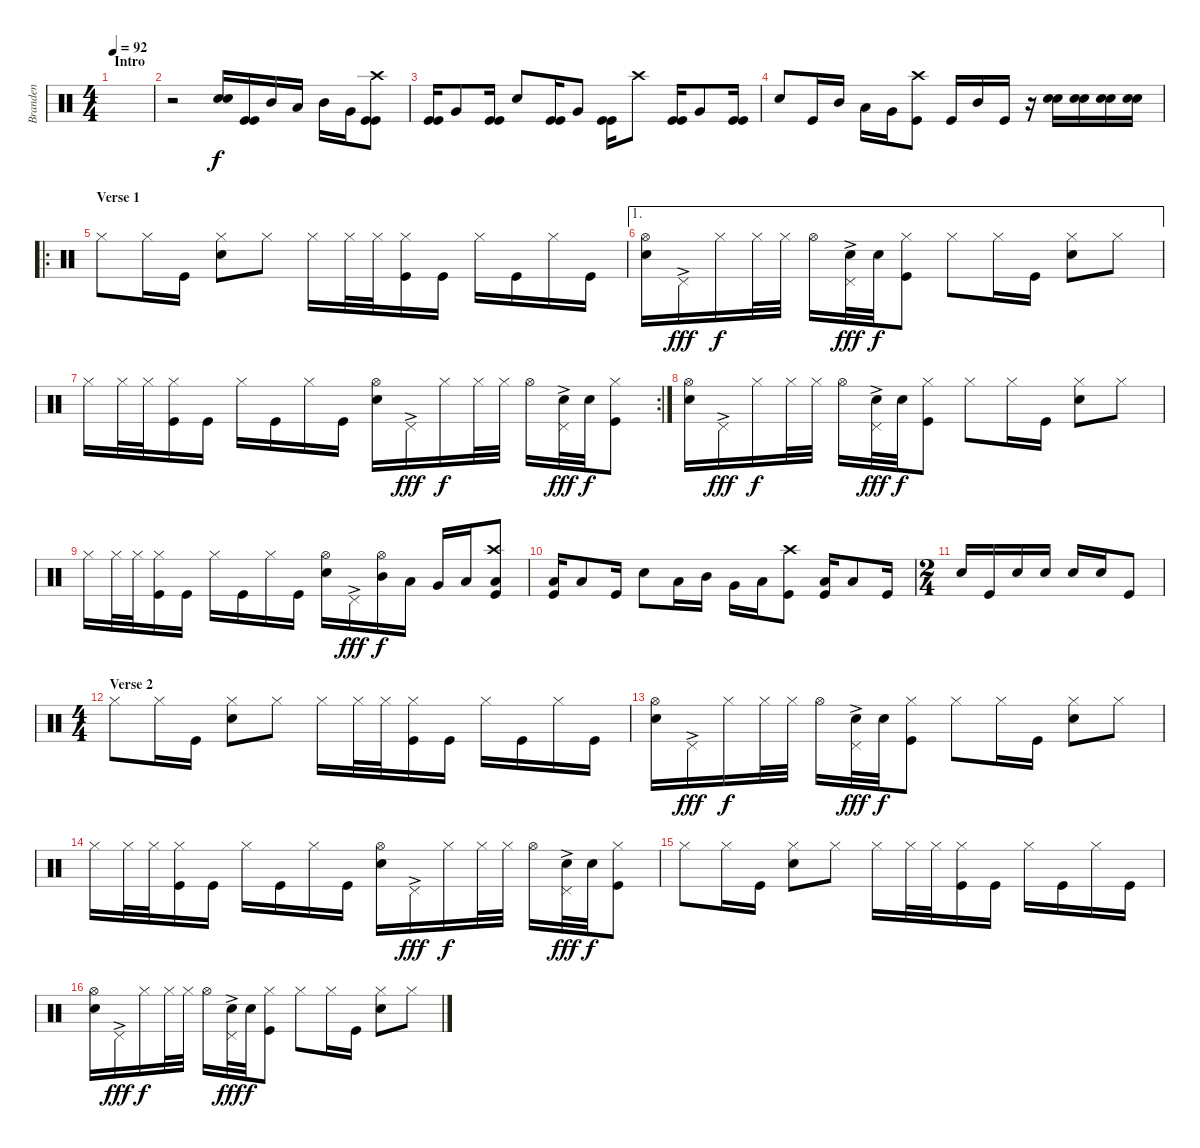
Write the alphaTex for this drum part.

\track ("Branden" "Branden") {instrument percussion}
\staff {score}
\articulation defaults
\ts (4 4)
\section ("" "Intro")
\tempo 92
\clef neutral
\ks c
|
r.2 ("Snare (hit) 2" "Snare (hit) 2").16 ("Kick (hit)" "Kick (hit)").16 "Mid Tom (hit)".16 "Low Tom (hit)".16 "Mid Tom (hit)".16 "Very Low Tom (hit)".16 ("Crash high (hit)" "Kick (hit)" "Kick (hit)").8 |
("Kick (hit)" "Kick (hit)").16 "Very Low Tom (hit)".8 ("Kick (hit)" "Kick (hit)").16 "Snare (hit) 2".8 ("Kick (hit)" "Kick (hit)").16 "Very Low Tom (hit)".8 ("Kick (hit)" "Kick (hit)").16 "Crash high (hit)".8 ("Kick (hit)" "Kick (hit)").16 "Very Low Tom (hit)".8 ("Kick (hit)" "Kick (hit)").16 |
"Snare (hit) 2".8 "Kick (hit)".16 "Mid Tom (hit)".16 "Low Tom (hit)".16 "Very Low Tom (hit)".16 ("Crash high (hit)" "Kick (hit)").8 "Kick (hit)".16 "Mid Tom (hit)".16 "Kick (hit)".16 r.16 ("Snare (hit) 2" "Snare (hit) 2").16 ("Snare (hit) 2" "Snare (hit) 2").16 ("Snare (hit) 2" "Snare (hit) 2").16 ("Snare (hit) 2" "Snare (hit) 2").16 |
\ro
\section ("" "Verse 1")
"Hi-Hat (closed)".8 "Hi-Hat (closed)".16 "Kick (hit)".16 ("Hi-Hat (closed)" "Snare (hit) 2").8 "Hi-Hat (closed)".8 "Hi-Hat (closed)".16 "Hi-Hat (closed)".32 "Hi-Hat (closed)".32 ("Hi-Hat (closed)" "Kick (hit)").16 "Kick (hit)".16 "Hi-Hat (closed)".16 "Kick (hit)".16 "Hi-Hat (closed)".16 "Kick (hit)".16 |
\ae 1
("Hi-Hat (open)" "Snare (hit) 2").16 "Pedal Hi-Hat (hit)"{ac}.16{dy fff} "Hi-Hat (closed)".16{dy f} "Hi-Hat (closed)".32 "Hi-Hat (closed)".32 "Hi-Hat (open)".16 ("Snare (hit) 2" "Pedal Hi-Hat (hit)"{ac}).32{dy fff} "Snare (hit) 2".32{dy f} ("Hi-Hat (closed)" "Kick (hit)").8 "Hi-Hat (closed)".8 "Hi-Hat (closed)".16 "Kick (hit)".16 ("Hi-Hat (closed)" "Snare (hit) 2").8 "Hi-Hat (closed)".8 |
\rc 2 "Hi-Hat (closed)".16 "Hi-Hat (closed)".32 "Hi-Hat (closed)".32
("Hi-Hat (closed)" "Kick (hit)").16 "Kick (hit)".16 "Hi-Hat (closed)".16 "Kick (hit)".16 "Hi-Hat (closed)".16 "Kick (hit)".16 ("Hi-Hat (open)" "Snare (hit) 2").16 "Pedal Hi-Hat (hit)"{ac}.16{dy fff} "Hi-Hat (closed)".16{dy f} "Hi-Hat (closed)".32 "Hi-Hat (closed)".32 "Hi-Hat (open)".16 ("Snare (hit) 2" "Pedal Hi-Hat (hit)"{ac}).32{dy fff} "Snare (hit) 2".32{dy f} ("Hi-Hat (closed)" "Kick (hit)").8 |
("Hi-Hat (open)" "Snare (hit) 2").16 "Pedal Hi-Hat (hit)"{ac}.16{dy fff} "Hi-Hat (closed)".16{dy f} "Hi-Hat (closed)".32 "Hi-Hat (closed)".32 "Hi-Hat (open)".16 ("Snare (hit) 2" "Pedal Hi-Hat (hit)"{ac}).32{dy fff} "Snare (hit) 2".32{dy f} ("Hi-Hat (closed)" "Kick (hit)").8 "Hi-Hat (closed)".8 "Hi-Hat (closed)".16 "Kick (hit)".16 ("Hi-Hat (closed)" "Snare (hit) 2").8 "Hi-Hat (closed)".8 |
"Hi-Hat (closed)".16 "Hi-Hat (closed)".32 "Hi-Hat (closed)".32 ("Hi-Hat (closed)" "Kick (hit)").16 "Kick (hit)".16 "Hi-Hat (closed)".16 "Kick (hit)".16 "Hi-Hat (closed)".16 "Kick (hit)".16 ("Hi-Hat (open)" "Snare (hit) 2").16 "Pedal Hi-Hat (hit)"{ac}.16{dy fff} ("Hi-Hat (open)" "Mid Tom (hit)").16{dy f} "Low Tom (hit)".16 "Very Low Tom (hit)".16 "Low Floor Tom (hit)".16 ("Crash high (hit)" "Low Floor Tom (hit)" "Kick (hit)").8 |
("Low Floor Tom (hit)" "Kick (hit)").16 "Low Tom (hit)".8 "Kick (hit)".16 "Snare (hit) 2".8 "Low Tom (hit)".16 "Mid Tom (hit)".16 "Very Low Tom (hit)".16 "Low Floor Tom (hit)".16 ("Crash high (hit)" "Kick (hit)").8 ("Low Floor Tom (hit)" "Kick (hit)").16 "Low Tom (hit)".8 "Kick (hit)".16 |
\ts (2 4)
"Snare (hit) 2".16 "Kick (hit)".16 "Snare (hit) 2".16 "Snare (hit) 2".16 "Snare (hit) 2".16 "Snare (hit) 2".16 "Kick (hit)".8 |
\ts (4 4)
\section ("" "Verse 2")
"Hi-Hat (closed)".8 "Hi-Hat (closed)".16 "Kick (hit)".16 ("Hi-Hat (closed)" "Snare (hit) 2").8 "Hi-Hat (closed)".8 "Hi-Hat (closed)".16 "Hi-Hat (closed)".32 "Hi-Hat (closed)".32 ("Hi-Hat (closed)" "Kick (hit)").16 "Kick (hit)".16 "Hi-Hat (closed)".16 "Kick (hit)".16 "Hi-Hat (closed)".16 "Kick (hit)".16 |
("Hi-Hat (open)" "Snare (hit) 2").16 "Pedal Hi-Hat (hit)"{ac}.16{dy fff} "Hi-Hat (closed)".16{dy f} "Hi-Hat (closed)".32 "Hi-Hat (closed)".32 "Hi-Hat (open)".16 ("Snare (hit) 2" "Pedal Hi-Hat (hit)"{ac}).32{dy fff} "Snare (hit) 2".32{dy f} ("Hi-Hat (closed)" "Kick (hit)").8 "Hi-Hat (closed)".8 "Hi-Hat (closed)".16 "Kick (hit)".16 ("Hi-Hat (closed)" "Snare (hit) 2").8 "Hi-Hat (closed)".8 |
"Hi-Hat (closed)".16 "Hi-Hat (closed)".32 "Hi-Hat (closed)".32 ("Hi-Hat (closed)" "Kick (hit)").16 "Kick (hit)".16 "Hi-Hat (closed)".16 "Kick (hit)".16 "Hi-Hat (closed)".16 "Kick (hit)".16 ("Hi-Hat (open)" "Snare (hit) 2").16 "Pedal Hi-Hat (hit)"{ac}.16{dy fff} "Hi-Hat (closed)".16{dy f} "Hi-Hat (closed)".32 "Hi-Hat (closed)".32 "Hi-Hat (open)".16 ("Snare (hit) 2" "Pedal Hi-Hat (hit)"{ac}).32{dy fff} "Snare (hit) 2".32{dy f} ("Hi-Hat (closed)" "Kick (hit)").8 |
"Hi-Hat (closed)".8 "Hi-Hat (closed)".16 "Kick (hit)".16 ("Hi-Hat (closed)" "Snare (hit) 2").8 "Hi-Hat (closed)".8 "Hi-Hat (closed)".16 "Hi-Hat (closed)".32 "Hi-Hat (closed)".32 ("Hi-Hat (closed)" "Kick (hit)").16 "Kick (hit)".16 "Hi-Hat (closed)".16 "Kick (hit)".16 "Hi-Hat (closed)".16 "Kick (hit)".16 |
("Hi-Hat (open)" "Snare (hit) 2").16 "Pedal Hi-Hat (hit)"{ac}.16{dy fff} "Hi-Hat (closed)".16{dy f} "Hi-Hat (closed)".32 "Hi-Hat (closed)".32 "Hi-Hat (open)".16 ("Snare (hit) 2" "Pedal Hi-Hat (hit)"{ac}).32{dy fff} "Snare (hit) 2".32{dy f} ("Hi-Hat (closed)" "Kick (hit)").8 "Hi-Hat (closed)".8 "Hi-Hat (closed)".16 "Kick (hit)".16 ("Hi-Hat (closed)" "Snare (hit) 2").8 "Hi-Hat (closed)".8
